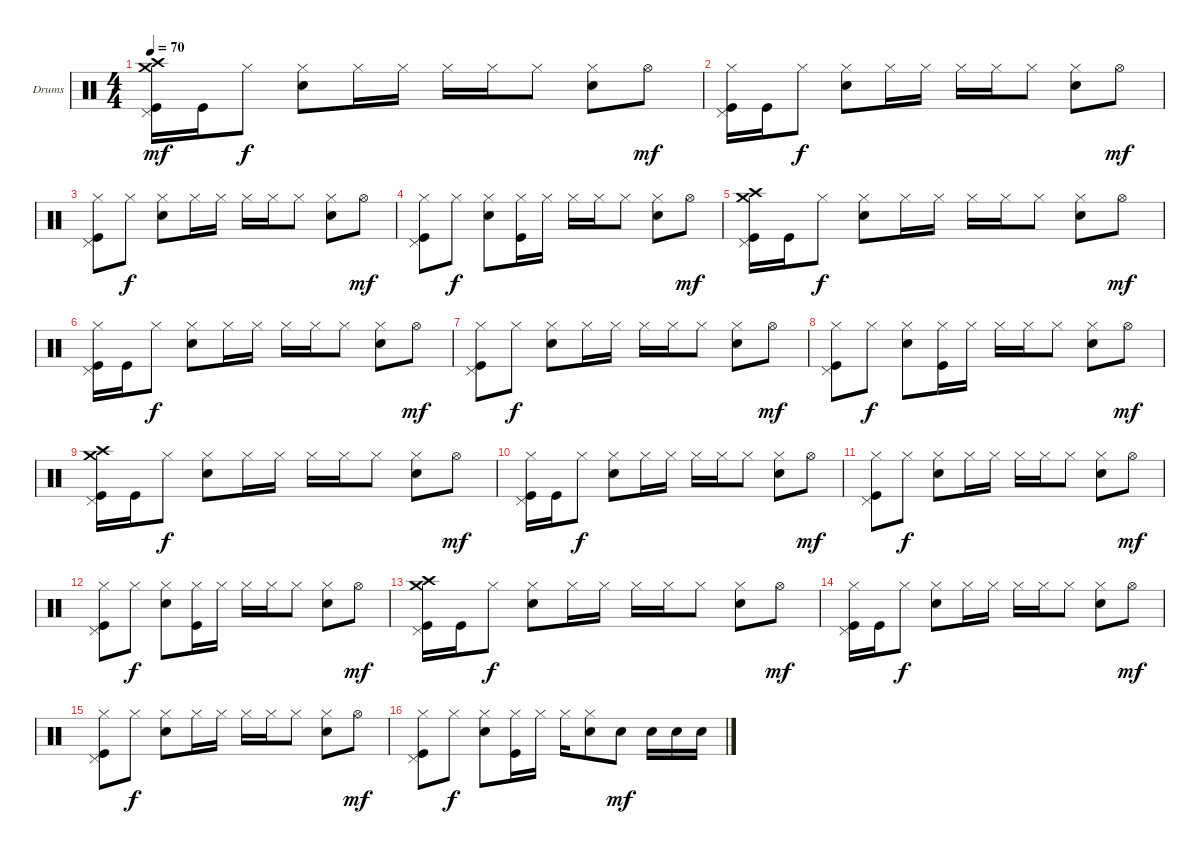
\defaultSystemsLayout 4
\bracketExtendMode groupsimilarinstruments
\firstSystemTrackNameOrientation horizontal
\otherSystemsTrackNameOrientation horizontal
\track ("Drumkit" "Drums") {instrument percussion}
\staff {score}
\articulation defaults
\ts (4 4)
\tempo 70
\clef neutral
\ks c
("Pedal Hi-Hat (hit)" "Kick (hit)" "Crash medium (hit)" "Crash high (hit)").16{dy mf} "Kick (hit)".16 "Hi-Hat (closed)".8{dy f} ("Snare (hit) 2" "Hi-Hat (closed)").8 "Hi-Hat (closed)".16 "Hi-Hat (closed)".16 "Hi-Hat (closed)".16 "Hi-Hat (closed)".16 "Hi-Hat (closed)".8 ("Snare (hit) 2" "Hi-Hat (closed)").8 "Hi-Hat (open)".8{dy mf} |
("Pedal Hi-Hat (hit)" "Kick (hit)" "Hi-Hat (closed)").16 "Kick (hit)".16 "Hi-Hat (closed)".8{dy f} ("Snare (hit) 2" "Hi-Hat (closed)").8 "Hi-Hat (closed)".16 "Hi-Hat (closed)".16 "Hi-Hat (closed)".16 "Hi-Hat (closed)".16 "Hi-Hat (closed)".8 ("Snare (hit) 2" "Hi-Hat (closed)").8 "Hi-Hat (open)".8{dy mf} |
("Pedal Hi-Hat (hit)" "Kick (hit)" "Hi-Hat (closed)").8 "Hi-Hat (closed)".8{dy f} ("Snare (hit) 2" "Hi-Hat (closed)").8 "Hi-Hat (closed)".16 "Hi-Hat (closed)".16 "Hi-Hat (closed)".16 "Hi-Hat (closed)".16 "Hi-Hat (closed)".8 ("Snare (hit) 2" "Hi-Hat (closed)").8 "Hi-Hat (open)".8{dy mf} |
("Pedal Hi-Hat (hit)" "Kick (hit)" "Hi-Hat (closed)").8 "Hi-Hat (closed)".8{dy f} ("Snare (hit) 2" "Hi-Hat (closed)").8 ("Kick (hit)" "Hi-Hat (closed)").16 "Hi-Hat (closed)".16 "Hi-Hat (closed)".16 "Hi-Hat (closed)".16 "Hi-Hat (closed)".8 ("Snare (hit) 2" "Hi-Hat (closed)").8 "Hi-Hat (open)".8{dy mf} |
("Pedal Hi-Hat (hit)" "Kick (hit)" "Crash medium (hit)" "Crash high (hit)").16 "Kick (hit)".16 "Hi-Hat (closed)".8{dy f} ("Snare (hit) 2" "Hi-Hat (closed)").8 "Hi-Hat (closed)".16 "Hi-Hat (closed)".16 "Hi-Hat (closed)".16 "Hi-Hat (closed)".16 "Hi-Hat (closed)".8 ("Snare (hit) 2" "Hi-Hat (closed)").8 "Hi-Hat (open)".8{dy mf} |
("Pedal Hi-Hat (hit)" "Kick (hit)" "Hi-Hat (closed)").16 "Kick (hit)".16 "Hi-Hat (closed)".8{dy f} ("Snare (hit) 2" "Hi-Hat (closed)").8 "Hi-Hat (closed)".16 "Hi-Hat (closed)".16 "Hi-Hat (closed)".16 "Hi-Hat (closed)".16 "Hi-Hat (closed)".8 ("Snare (hit) 2" "Hi-Hat (closed)").8 "Hi-Hat (open)".8{dy mf} |
("Pedal Hi-Hat (hit)" "Kick (hit)" "Hi-Hat (closed)").8 "Hi-Hat (closed)".8{dy f} ("Snare (hit) 2" "Hi-Hat (closed)").8 "Hi-Hat (closed)".16 "Hi-Hat (closed)".16 "Hi-Hat (closed)".16 "Hi-Hat (closed)".16 "Hi-Hat (closed)".8 ("Snare (hit) 2" "Hi-Hat (closed)").8 "Hi-Hat (open)".8{dy mf} |
("Pedal Hi-Hat (hit)" "Kick (hit)" "Hi-Hat (closed)").8 "Hi-Hat (closed)".8{dy f} ("Snare (hit) 2" "Hi-Hat (closed)").8 ("Kick (hit)" "Hi-Hat (closed)").16 "Hi-Hat (closed)".16 "Hi-Hat (closed)".16 "Hi-Hat (closed)".16 "Hi-Hat (closed)".8 ("Snare (hit) 2" "Hi-Hat (closed)").8 "Hi-Hat (open)".8{dy mf} |
("Pedal Hi-Hat (hit)" "Kick (hit)" "Crash medium (hit)" "Crash high (hit)").16 "Kick (hit)".16 "Hi-Hat (closed)".8{dy f} ("Snare (hit) 2" "Hi-Hat (closed)").8 "Hi-Hat (closed)".16 "Hi-Hat (closed)".16 "Hi-Hat (closed)".16 "Hi-Hat (closed)".16 "Hi-Hat (closed)".8 ("Snare (hit) 2" "Hi-Hat (closed)").8 "Hi-Hat (open)".8{dy mf} |
("Pedal Hi-Hat (hit)" "Kick (hit)" "Hi-Hat (closed)").16 "Kick (hit)".16 "Hi-Hat (closed)".8{dy f} ("Snare (hit) 2" "Hi-Hat (closed)").8 "Hi-Hat (closed)".16 "Hi-Hat (closed)".16 "Hi-Hat (closed)".16 "Hi-Hat (closed)".16 "Hi-Hat (closed)".8 ("Snare (hit) 2" "Hi-Hat (closed)").8 "Hi-Hat (open)".8{dy mf} |
("Pedal Hi-Hat (hit)" "Kick (hit)" "Hi-Hat (closed)").8 "Hi-Hat (closed)".8{dy f} ("Snare (hit) 2" "Hi-Hat (closed)").8 "Hi-Hat (closed)".16 "Hi-Hat (closed)".16 "Hi-Hat (closed)".16 "Hi-Hat (closed)".16 "Hi-Hat (closed)".8 ("Snare (hit) 2" "Hi-Hat (closed)").8 "Hi-Hat (open)".8{dy mf} |
("Pedal Hi-Hat (hit)" "Kick (hit)" "Hi-Hat (closed)").8 "Hi-Hat (closed)".8{dy f} ("Snare (hit) 2" "Hi-Hat (closed)").8 ("Kick (hit)" "Hi-Hat (closed)").16 "Hi-Hat (closed)".16 "Hi-Hat (closed)".16 "Hi-Hat (closed)".16 "Hi-Hat (closed)".8 ("Snare (hit) 2" "Hi-Hat (closed)").8 "Hi-Hat (open)".8{dy mf} |
("Pedal Hi-Hat (hit)" "Kick (hit)" "Crash medium (hit)" "Crash high (hit)").16 "Kick (hit)".16 "Hi-Hat (closed)".8{dy f} ("Snare (hit) 2" "Hi-Hat (closed)").8 "Hi-Hat (closed)".16 "Hi-Hat (closed)".16 "Hi-Hat (closed)".16 "Hi-Hat (closed)".16 "Hi-Hat (closed)".8 ("Snare (hit) 2" "Hi-Hat (closed)").8 "Hi-Hat (open)".8{dy mf} |
("Pedal Hi-Hat (hit)" "Kick (hit)" "Hi-Hat (closed)").16 "Kick (hit)".16 "Hi-Hat (closed)".8{dy f} ("Snare (hit) 2" "Hi-Hat (closed)").8 "Hi-Hat (closed)".16 "Hi-Hat (closed)".16 "Hi-Hat (closed)".16 "Hi-Hat (closed)".16 "Hi-Hat (closed)".8 ("Snare (hit) 2" "Hi-Hat (closed)").8 "Hi-Hat (open)".8{dy mf} |
("Pedal Hi-Hat (hit)" "Kick (hit)" "Hi-Hat (closed)").8 "Hi-Hat (closed)".8{dy f} ("Snare (hit) 2" "Hi-Hat (closed)").8 "Hi-Hat (closed)".16 "Hi-Hat (closed)".16 "Hi-Hat (closed)".16 "Hi-Hat (closed)".16 "Hi-Hat (closed)".8 ("Snare (hit) 2" "Hi-Hat (closed)").8 "Hi-Hat (open)".8{dy mf} |
("Pedal Hi-Hat (hit)" "Kick (hit)" "Hi-Hat (closed)").8 "Hi-Hat (closed)".8{dy f} ("Snare (hit) 2" "Hi-Hat (closed)").8 ("Kick (hit)" "Hi-Hat (closed)").16 "Hi-Hat (closed)".16 "Hi-Hat (closed)".16 ("Snare (hit) 2" "Hi-Hat (closed)").8 "Snare (hit) 2".8{dy mf} "Snare (hit) 2".16 "Snare (hit) 2".16 "Snare (hit) 2".16
